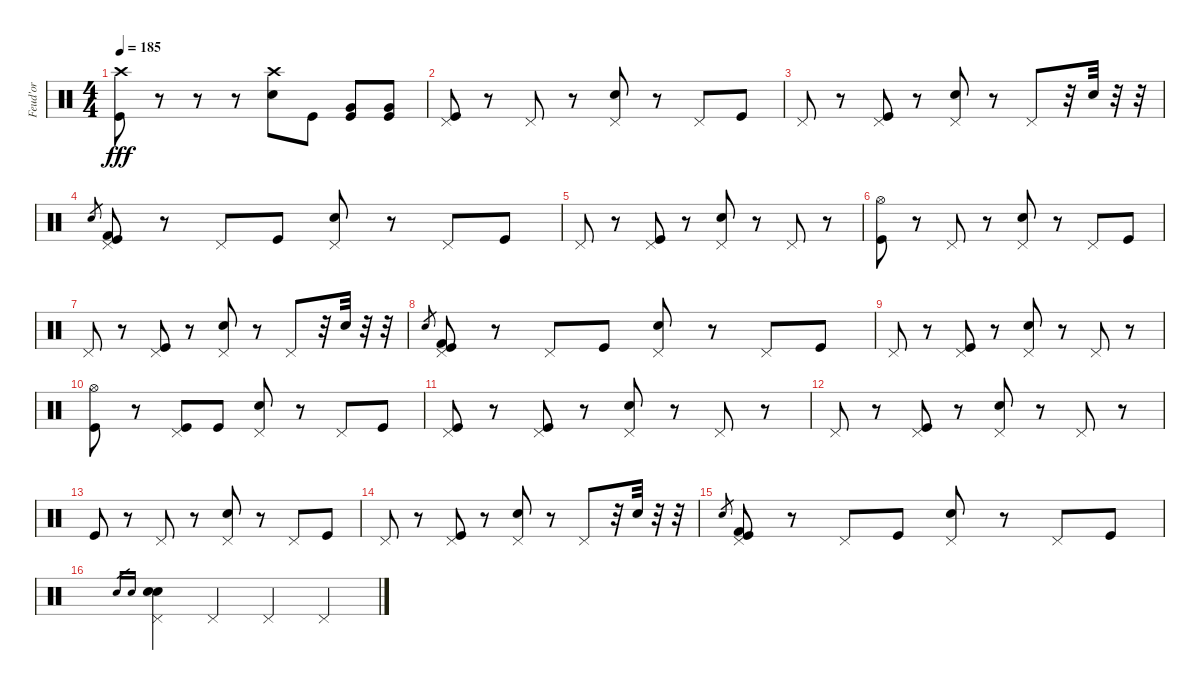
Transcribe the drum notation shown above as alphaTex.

\track ("Feud'or" "Feud'or") {instrument percussion}
\staff {score}
\articulation defaults
\ts (4 4)
\tempo 185
\clef neutral
\ks c
("Crash high (hit)" "Kick (hit)").8{dy fff} r.8 r.8 r.8 ("Crash high (hit)" "Snare (hit) 2").8 "Kick (hit)".8 ("Very Low Tom (hit)" "Kick (hit)").8 ("Very Low Tom (hit)" "Kick (hit)").8 |
("Pedal Hi-Hat (hit)" "Kick (hit)").8 r.8 "Pedal Hi-Hat (hit)".8 r.8 ("Pedal Hi-Hat (hit)" "Snare (hit) 2").8 r.8 "Pedal Hi-Hat (hit)".8 "Kick (hit)".8 |
"Pedal Hi-Hat (hit)".8 r.8 ("Pedal Hi-Hat (hit)" "Kick (hit)").8 r.8 ("Pedal Hi-Hat (hit)" "Snare (hit) 2").8 r.8 "Pedal Hi-Hat (hit)".8 r.32 "Electric Snare (hit)".32 r.32 r.32 |
"Snare (hit) 2".8{gr} ("Pedal Hi-Hat (hit)" "Kick (hit) 2" "Kick (hit)").8 r.8 "Pedal Hi-Hat (hit)".8 "Kick (hit)".8 ("Pedal Hi-Hat (hit)" "Snare (hit) 2").8 r.8 "Pedal Hi-Hat (hit)".8 "Kick (hit)".8 |
"Pedal Hi-Hat (hit)".8 r.8 ("Pedal Hi-Hat (hit)" "Kick (hit)").8 r.8 ("Pedal Hi-Hat (hit)" "Snare (hit) 2").8 r.8 "Pedal Hi-Hat (hit)".8 r.8 |
("Hi-Hat (open)" "Kick (hit)").8 r.8 "Pedal Hi-Hat (hit)".8 r.8 ("Pedal Hi-Hat (hit)" "Snare (hit) 2").8 r.8 "Pedal Hi-Hat (hit)".8 "Kick (hit)".8 |
"Pedal Hi-Hat (hit)".8 r.8 ("Pedal Hi-Hat (hit)" "Kick (hit)").8 r.8 ("Pedal Hi-Hat (hit)" "Snare (hit) 2").8 r.8 "Pedal Hi-Hat (hit)".8 r.32 "Electric Snare (hit)".32 r.32 r.32 |
"Snare (hit) 2".8{gr} ("Pedal Hi-Hat (hit)" "Kick (hit) 2" "Kick (hit)").8 r.8 "Pedal Hi-Hat (hit)".8 "Kick (hit)".8 ("Pedal Hi-Hat (hit)" "Snare (hit) 2").8 r.8 "Pedal Hi-Hat (hit)".8 "Kick (hit)".8 |
"Pedal Hi-Hat (hit)".8 r.8 ("Pedal Hi-Hat (hit)" "Kick (hit)").8 r.8 ("Pedal Hi-Hat (hit)" "Snare (hit) 2").8 r.8 "Pedal Hi-Hat (hit)".8 r.8 |
("Hi-Hat (open)" "Kick (hit)").8 r.8 ("Pedal Hi-Hat (hit)" "Kick (hit)").8 "Kick (hit)".8 ("Pedal Hi-Hat (hit)" "Snare (hit) 2").8 r.8 "Pedal Hi-Hat (hit)".8 "Kick (hit)".8 |
("Pedal Hi-Hat (hit)" "Kick (hit)").8 r.8 ("Pedal Hi-Hat (hit)" "Kick (hit)").8 r.8 ("Pedal Hi-Hat (hit)" "Snare (hit) 2").8 r.8 "Pedal Hi-Hat (hit)".8 r.8 |
"Pedal Hi-Hat (hit)".8 r.8 ("Pedal Hi-Hat (hit)" "Kick (hit)").8 r.8 ("Pedal Hi-Hat (hit)" "Snare (hit) 2").8 r.8 "Pedal Hi-Hat (hit)".8 r.8 |
"Kick (hit)".8 r.8 "Pedal Hi-Hat (hit)".8 r.8 ("Pedal Hi-Hat (hit)" "Snare (hit) 2").8 r.8 "Pedal Hi-Hat (hit)".8 "Kick (hit)".8 |
"Pedal Hi-Hat (hit)".8 r.8 ("Pedal Hi-Hat (hit)" "Kick (hit)").8 r.8 ("Pedal Hi-Hat (hit)" "Snare (hit) 2").8 r.8 "Pedal Hi-Hat (hit)".8 r.32 "Electric Snare (hit)".32 r.32 r.32 |
"Snare (hit) 2".8{gr} ("Pedal Hi-Hat (hit)" "Kick (hit) 2" "Kick (hit)").8 r.8 "Pedal Hi-Hat (hit)".8 "Kick (hit)".8 ("Pedal Hi-Hat (hit)" "Snare (hit) 2").8 r.8 "Pedal Hi-Hat (hit)".8 "Kick (hit)".8 |
"Electric Snare (hit)".16{gr} "Snare (hit) 2".16{gr} ("Pedal Hi-Hat (hit)" "Electric Snare (hit)" "Snare (hit) 2").4 "Pedal Hi-Hat (hit)".4 "Pedal Hi-Hat (hit)".4 "Pedal Hi-Hat (hit)".4
